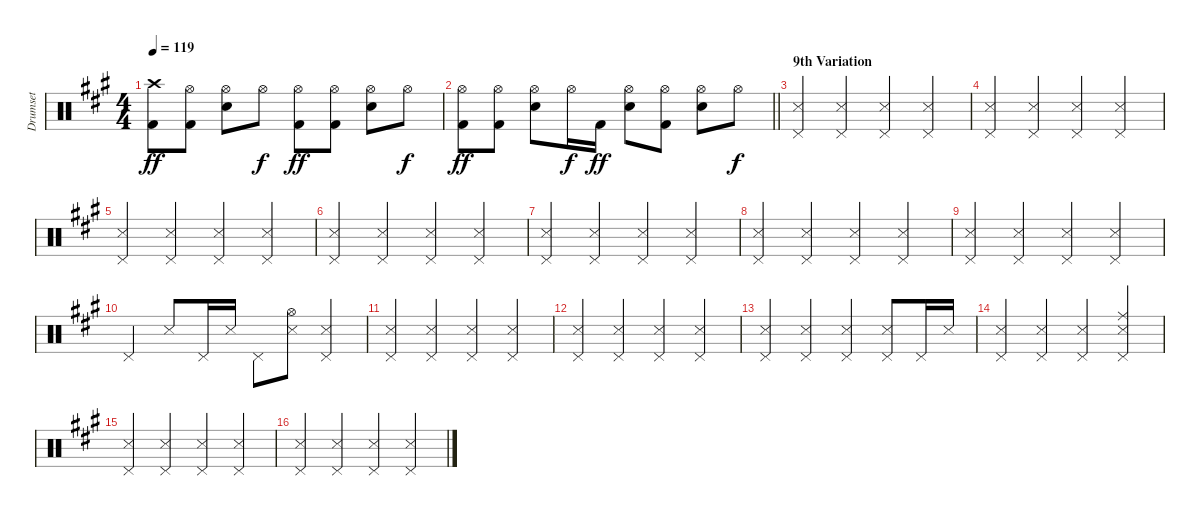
\track ("Drumset" "Drumset") {instrument percussion}
\staff {score}
\articulation defaults
\ts (4 4)
\tempo 119
\clef neutral
\ks a
("Crash high (hit)" "Kick (hit) 2").8{dy ff} ("Hi-Hat (open)" "Kick (hit) 2").8 ("Hi-Hat (open)" "Snare (hit) 2").8 "Hi-Hat (open)".8{dy f} ("Hi-Hat (open)" "Kick (hit) 2").8{dy ff} ("Hi-Hat (open)" "Kick (hit) 2").8 ("Hi-Hat (open)" "Snare (hit) 2").8 "Hi-Hat (open)".8{dy f} |
\barLineRight lightlight
("Hi-Hat (open)" "Kick (hit) 2").8{dy ff} ("Hi-Hat (open)" "Kick (hit) 2").8 ("Hi-Hat (open)" "Snare (hit) 2").8 "Hi-Hat (open)".16{dy f} "Kick (hit) 2".16{dy ff} ("Hi-Hat (open)" "Snare (hit) 2").8 ("Hi-Hat (open)" "Kick (hit) 2").8 ("Hi-Hat (open)" "Snare (hit) 2").8 "Hi-Hat (open)".8{dy f} |
\section ("" "9th Variation")
("Pedal Hi-Hat (hit)" "Snare (side stick) 3").4 ("Pedal Hi-Hat (hit)" "Snare (side stick) 3").4 ("Pedal Hi-Hat (hit)" "Snare (side stick) 3").4 ("Pedal Hi-Hat (hit)" "Snare (side stick) 3").4 |
("Pedal Hi-Hat (hit)" "Snare (side stick) 3").4 ("Pedal Hi-Hat (hit)" "Snare (side stick) 3").4 ("Pedal Hi-Hat (hit)" "Snare (side stick) 3").4 ("Pedal Hi-Hat (hit)" "Snare (side stick) 3").4 |
("Pedal Hi-Hat (hit)" "Snare (side stick) 3").4 ("Pedal Hi-Hat (hit)" "Snare (side stick) 3").4 ("Pedal Hi-Hat (hit)" "Snare (side stick) 3").4 ("Pedal Hi-Hat (hit)" "Snare (side stick) 3").4 |
("Pedal Hi-Hat (hit)" "Snare (side stick) 3").4 ("Pedal Hi-Hat (hit)" "Snare (side stick) 3").4 ("Pedal Hi-Hat (hit)" "Snare (side stick) 3").4 ("Pedal Hi-Hat (hit)" "Snare (side stick) 3").4 |
("Pedal Hi-Hat (hit)" "Snare (side stick) 3").4 ("Pedal Hi-Hat (hit)" "Snare (side stick) 3").4 ("Pedal Hi-Hat (hit)" "Snare (side stick) 3").4 ("Pedal Hi-Hat (hit)" "Snare (side stick) 3").4 |
("Pedal Hi-Hat (hit)" "Snare (side stick) 3").4 ("Pedal Hi-Hat (hit)" "Snare (side stick) 3").4 ("Pedal Hi-Hat (hit)" "Snare (side stick) 3").4 ("Pedal Hi-Hat (hit)" "Snare (side stick) 3").4 |
("Pedal Hi-Hat (hit)" "Snare (side stick) 3").4 ("Pedal Hi-Hat (hit)" "Snare (side stick) 3").4 ("Pedal Hi-Hat (hit)" "Snare (side stick) 3").4 ("Pedal Hi-Hat (hit)" "Snare (side stick) 3").4 |
"Pedal Hi-Hat (hit)".4 "Snare (side stick) 3".8 "Pedal Hi-Hat (hit)".16 "Snare (side stick) 3".16 "Pedal Hi-Hat (hit)".8 ("Hi-Hat (open)" "Snare (side stick) 3").8 ("Pedal Hi-Hat (hit)" "Snare (side stick) 3").4 |
("Pedal Hi-Hat (hit)" "Snare (side stick) 3").4 ("Pedal Hi-Hat (hit)" "Snare (side stick) 3").4 ("Pedal Hi-Hat (hit)" "Snare (side stick) 3").4 ("Pedal Hi-Hat (hit)" "Snare (side stick) 3").4 |
("Pedal Hi-Hat (hit)" "Snare (side stick) 3").4 ("Pedal Hi-Hat (hit)" "Snare (side stick) 3").4 ("Pedal Hi-Hat (hit)" "Snare (side stick) 3").4 ("Pedal Hi-Hat (hit)" "Snare (side stick) 3").4 |
("Pedal Hi-Hat (hit)" "Snare (side stick) 3").4 ("Pedal Hi-Hat (hit)" "Snare (side stick) 3").4 ("Pedal Hi-Hat (hit)" "Snare (side stick) 3").4 ("Pedal Hi-Hat (hit)" "Snare (side stick) 3").8 "Pedal Hi-Hat (hit)".16 "Snare (side stick) 3".16 |
("Pedal Hi-Hat (hit)" "Snare (side stick) 3").4 ("Pedal Hi-Hat (hit)" "Snare (side stick) 3").4 ("Pedal Hi-Hat (hit)" "Snare (side stick) 3").4 ("Ride (middle)" "Pedal Hi-Hat (hit)" "Snare (side stick) 3").4 |
("Pedal Hi-Hat (hit)" "Snare (side stick) 3").4 ("Pedal Hi-Hat (hit)" "Snare (side stick) 3").4 ("Pedal Hi-Hat (hit)" "Snare (side stick) 3").4 ("Pedal Hi-Hat (hit)" "Snare (side stick) 3").4 |
("Pedal Hi-Hat (hit)" "Snare (side stick) 3").4 ("Pedal Hi-Hat (hit)" "Snare (side stick) 3").4 ("Pedal Hi-Hat (hit)" "Snare (side stick) 3").4 ("Pedal Hi-Hat (hit)" "Snare (side stick) 3").4
